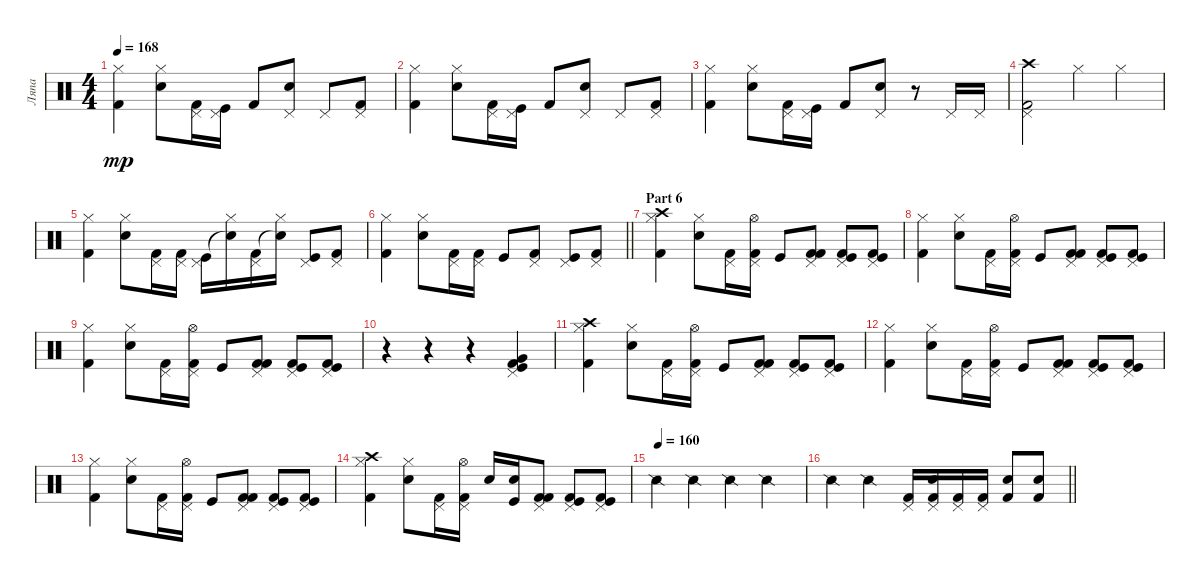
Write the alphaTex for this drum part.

\track ("Ляпа" "Ляпа") {instrument percussion}
\staff {score}
\articulation defaults
\ts (4 4)
\tempo 168
\clef neutral
\ks c
("Kick (hit) 2" "Hi-Hat (closed)").4{dy mp} ("Electric Snare (hit)" "Hi-Hat (closed)").8 ("Kick (hit) 2" "Pedal Hi-Hat (hit)").16 ("Kick (hit)" "Pedal Hi-Hat (hit)").16 "Kick (hit) 2".8 ("Electric Snare (hit)" "Pedal Hi-Hat (hit)").8 "Pedal Hi-Hat (hit)".8 ("Kick (hit) 2" "Pedal Hi-Hat (hit)").8 |
("Kick (hit) 2" "Hi-Hat (closed)").4 ("Electric Snare (hit)" "Hi-Hat (closed)").8 ("Kick (hit) 2" "Pedal Hi-Hat (hit)").16 ("Kick (hit)" "Pedal Hi-Hat (hit)").16 "Kick (hit) 2".8 ("Electric Snare (hit)" "Pedal Hi-Hat (hit)").8 "Pedal Hi-Hat (hit)".8 ("Kick (hit) 2" "Pedal Hi-Hat (hit)").8 |
("Kick (hit) 2" "Hi-Hat (closed)").4 ("Electric Snare (hit)" "Hi-Hat (closed)").8 ("Kick (hit) 2" "Pedal Hi-Hat (hit)").16 ("Kick (hit)" "Pedal Hi-Hat (hit)").16 "Kick (hit) 2".8 ("Electric Snare (hit)" "Pedal Hi-Hat (hit)").8 r.8 "Pedal Hi-Hat (hit)".16 "Pedal Hi-Hat (hit)".16 |
("Crash high (hit)" "Pedal Hi-Hat (hit)" "Kick (hit) 2").2 "Hi-Hat (closed)".4 "Hi-Hat (closed)".4 |
("Kick (hit) 2" "Hi-Hat (closed)").4 ("Electric Snare (hit)" "Hi-Hat (closed)").8 ("Kick (hit) 2" "Pedal Hi-Hat (hit)").16 ("Kick (hit) 2" "Pedal Hi-Hat (hit)").16 ("Kick (hit)" "Pedal Hi-Hat (hit)").16 ("Snare (hit)"{t} "Hi-Hat (closed)").16 ("Kick (hit) 2" "Pedal Hi-Hat (hit)").16 ("Snare (hit)"{t} "Hi-Hat (closed)").16 ("Kick (hit)" "Pedal Hi-Hat (hit)").8 ("Kick (hit) 2" "Pedal Hi-Hat (hit)").8 |
\barLineRight lightlight
("Kick (hit) 2" "Hi-Hat (closed)").4 ("Electric Snare (hit)" "Hi-Hat (closed)").8 ("Kick (hit) 2" "Pedal Hi-Hat (hit)").16 ("Kick (hit) 2" "Pedal Hi-Hat (hit)").16 "Kick (hit)".8 ("Kick (hit) 2" "Pedal Hi-Hat (hit)").8 ("Kick (hit)" "Pedal Hi-Hat (hit)").8 ("Kick (hit) 2" "Pedal Hi-Hat (hit)").8 |
\section ("" "Part 6")
("Crash high (hit)" "Kick (hit) 2" "Hi-Hat (closed)").4 ("Electric Snare (hit)" "Hi-Hat (closed)").8 ("Kick (hit) 2" "Pedal Hi-Hat (hit)").16 ("Kick (hit) 2" "Hi-Hat (open)" "Pedal Hi-Hat (hit)").16 "Kick (hit)".8 ("Kick (hit) 2" "Kick (hit) 2" "Pedal Hi-Hat (hit)").8 ("Kick (hit) 2" "Kick (hit)" "Pedal Hi-Hat (hit)").8 ("Kick (hit)" "Kick (hit) 2" "Pedal Hi-Hat (hit)").8 |
("Kick (hit) 2" "Hi-Hat (closed)").4 ("Electric Snare (hit)" "Hi-Hat (closed)").8 ("Kick (hit) 2" "Pedal Hi-Hat (hit)").16 ("Kick (hit) 2" "Hi-Hat (open)" "Pedal Hi-Hat (hit)").16 "Kick (hit)".8 ("Kick (hit) 2" "Kick (hit) 2" "Pedal Hi-Hat (hit)").8 ("Kick (hit) 2" "Kick (hit)" "Pedal Hi-Hat (hit)").8 ("Kick (hit)" "Kick (hit) 2" "Pedal Hi-Hat (hit)").8 |
("Kick (hit) 2" "Hi-Hat (closed)").4 ("Electric Snare (hit)" "Hi-Hat (closed)").8 ("Kick (hit) 2" "Pedal Hi-Hat (hit)").16 ("Kick (hit) 2" "Hi-Hat (open)" "Pedal Hi-Hat (hit)").16 "Kick (hit)".8 ("Kick (hit) 2" "Kick (hit) 2" "Pedal Hi-Hat (hit)").8 ("Kick (hit) 2" "Kick (hit)" "Pedal Hi-Hat (hit)").8 ("Kick (hit)" "Kick (hit) 2" "Pedal Hi-Hat (hit)").8 |
r.4 r.4 r.4 ("Kick (hit)" "Kick (hit) 2" "Very Low Tom (hit)" "Pedal Hi-Hat (hit)").4 |
("Crash high (hit)" "Kick (hit) 2" "Hi-Hat (closed)").4 ("Electric Snare (hit)" "Hi-Hat (closed)").8 ("Kick (hit) 2" "Pedal Hi-Hat (hit)").16 ("Kick (hit) 2" "Hi-Hat (open)" "Pedal Hi-Hat (hit)").16 "Kick (hit)".8 ("Kick (hit) 2" "Kick (hit) 2" "Pedal Hi-Hat (hit)").8 ("Kick (hit) 2" "Kick (hit)" "Pedal Hi-Hat (hit)").8 ("Kick (hit)" "Kick (hit) 2" "Pedal Hi-Hat (hit)").8 |
("Kick (hit) 2" "Hi-Hat (closed)").4 ("Electric Snare (hit)" "Hi-Hat (closed)").8 ("Kick (hit) 2" "Pedal Hi-Hat (hit)").16 ("Kick (hit) 2" "Hi-Hat (open)" "Pedal Hi-Hat (hit)").16 "Kick (hit)".8 ("Kick (hit) 2" "Kick (hit) 2" "Pedal Hi-Hat (hit)").8 ("Kick (hit) 2" "Kick (hit)" "Pedal Hi-Hat (hit)").8 ("Kick (hit)" "Kick (hit) 2" "Pedal Hi-Hat (hit)").8 |
("Kick (hit) 2" "Hi-Hat (closed)").4 ("Electric Snare (hit)" "Hi-Hat (closed)").8 ("Kick (hit) 2" "Pedal Hi-Hat (hit)").16 ("Kick (hit) 2" "Hi-Hat (open)" "Pedal Hi-Hat (hit)").16 "Kick (hit)".8 ("Kick (hit) 2" "Kick (hit) 2" "Pedal Hi-Hat (hit)").8 ("Kick (hit) 2" "Kick (hit)" "Pedal Hi-Hat (hit)").8 ("Kick (hit)" "Kick (hit) 2" "Pedal Hi-Hat (hit)").8 |
("Crash high (hit)" "Kick (hit) 2" "Hi-Hat (closed)").4 ("Electric Snare (hit)" "Hi-Hat (closed)").8 ("Kick (hit) 2" "Pedal Hi-Hat (hit)").16 ("Kick (hit) 2" "Hi-Hat (open)" "Pedal Hi-Hat (hit)").16 "Snare (hit) 2".16 ("Kick (hit)" "Snare (hit) 2").16 ("Kick (hit) 2" "Kick (hit) 2" "Pedal Hi-Hat (hit)").8 ("Kick (hit) 2" "Kick (hit)" "Pedal Hi-Hat (hit)").8 ("Kick (hit)" "Kick (hit) 2" "Pedal Hi-Hat (hit)").8 |
\tempo (160)
"Snare (side stick) 2".4 "Snare (side stick) 2".4 "Snare (side stick) 2".4 "Snare (side stick) 2".4 |
\barLineRight lightlight "Snare (side stick) 2".4 "Snare (side stick) 2".4
("Kick (hit) 2" "Pedal Hi-Hat (hit)").16 ("Electric Snare (hit)" "Kick (hit) 2" "Pedal Hi-Hat (hit)").16 ("Kick (hit) 2" "Pedal Hi-Hat (hit)").16 ("Kick (hit) 2" "Pedal Hi-Hat (hit)").16 ("Electric Snare (hit)" "Kick (hit) 2").8 ("Electric Snare (hit)" "Kick (hit) 2").8
